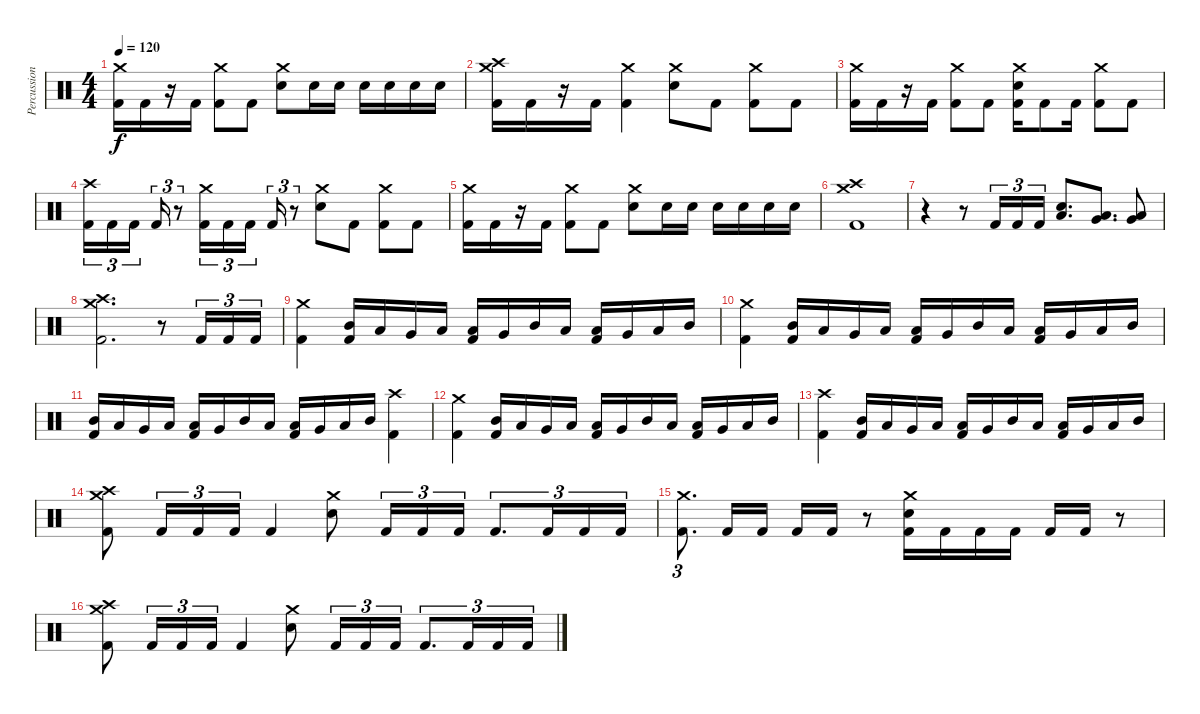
\track ("Percussion" "Percussion") {instrument percussion}
\staff {score}
\articulation defaults
\ts (4 4)
\tempo 120
\clef neutral
\ks c
("Crash medium (hit)" "Kick (hit) 2").16{dy f} "Kick (hit) 2".16 r.16 "Kick (hit) 2".16 ("Crash medium (hit)" "Kick (hit) 2").8 "Kick (hit) 2".8 ("Crash medium (hit)" "Electric Snare (hit)").8 "Electric Snare (hit)".16 "Electric Snare (hit)".16 "Electric Snare (hit)".16 "Electric Snare (hit)".16 "Electric Snare (hit)".16 "Electric Snare (hit)".16 |
("Crash high (hit)" "Crash medium (hit)" "Kick (hit) 2").16 "Kick (hit) 2".16 r.16 "Kick (hit) 2".16 ("Crash medium (hit)" "Kick (hit) 2").4 ("Crash medium (hit)" "Electric Snare (hit)").8 "Kick (hit) 2".8 ("Crash medium (hit)" "Kick (hit) 2").8 "Kick (hit) 2".8 |
("Crash medium (hit)" "Kick (hit) 2").16 "Kick (hit) 2".16 r.16 "Kick (hit) 2".16 ("Crash medium (hit)" "Kick (hit) 2").8 "Kick (hit) 2".8 ("Crash medium (hit)" "Electric Snare (hit)" "Kick (hit) 2").16 "Kick (hit) 2".8 "Kick (hit) 2".16 ("Crash medium (hit)" "Kick (hit) 2").8 "Kick (hit) 2".8 |
("Crash high (hit)" "Kick (hit) 2").16{tu (3 2)} "Kick (hit) 2".16{tu (3 2)} "Kick (hit) 2".16{tu (3 2) beam splitsecondary} "Kick (hit) 2".16{tu (3 2)} r.8{tu (3 2)} ("Crash medium (hit)" "Kick (hit) 2").16{tu (3 2)} "Kick (hit) 2".16{tu (3 2)} "Kick (hit) 2".16{tu (3 2) beam splitsecondary} "Kick (hit) 2".16{tu (3 2)} r.8{tu (3 2)} ("Crash medium (hit)" "Electric Snare (hit)").8 "Kick (hit) 2".8 ("Crash medium (hit)" "Kick (hit) 2").8 "Kick (hit) 2".8 |
("Crash medium (hit)" "Kick (hit) 2").16 "Kick (hit) 2".16 r.16 "Kick (hit) 2".16 ("Crash medium (hit)" "Kick (hit) 2").8 "Kick (hit) 2".8 ("Crash medium (hit)" "Electric Snare (hit)").8 "Electric Snare (hit)".16 "Electric Snare (hit)".16 "Electric Snare (hit)".16 "Electric Snare (hit)".16 "Electric Snare (hit)".16 "Electric Snare (hit)".16 |
("Crash high (hit)" "Crash medium (hit)" "Kick (hit) 2").1 |
r.4 r.8 "Kick (hit) 2".16{tu (3 2)} "Kick (hit) 2".16{tu (3 2)} "Kick (hit) 2".16{tu (3 2)} ("Electric Snare (hit)" "Low Floor Tom (hit)").8{d} ("Very Low Tom (hit)" "Low Tom (hit)").8{d} ("Very Low Tom (hit)" "Low Floor Tom (hit)").8 |
("Crash high (hit)" "Crash medium (hit)" "Kick (hit) 2").2{d} r.8 "Kick (hit) 2".16{tu (3 2)} "Kick (hit) 2".16{tu (3 2)} "Kick (hit) 2".16{tu (3 2)} |
("Crash medium (hit)" "Kick (hit) 2").4 ("Mid Tom (hit)" "Kick (hit) 2").16 "Low Tom (hit)".16 "Very Low Tom (hit)".16 "Low Floor Tom (hit)".16 ("Low Tom (hit)" "Kick (hit) 2").16 "Very Low Tom (hit)".16 "Mid Tom (hit)".16 "Low Floor Tom (hit)".16 ("Low Tom (hit)" "Kick (hit) 2").16 "Very Low Tom (hit)".16 "Low Floor Tom (hit)".16 "Mid Tom (hit)".16 |
("Crash medium (hit)" "Kick (hit) 2").4 ("Mid Tom (hit)" "Kick (hit) 2").16 "Low Tom (hit)".16 "Very Low Tom (hit)".16 "Low Floor Tom (hit)".16 ("Low Tom (hit)" "Kick (hit) 2").16 "Very Low Tom (hit)".16 "Mid Tom (hit)".16 "Low Floor Tom (hit)".16 ("Low Tom (hit)" "Kick (hit) 2").16 "Very Low Tom (hit)".16 "Low Floor Tom (hit)".16 "Mid Tom (hit)".16 |
("Mid Tom (hit)" "Kick (hit) 2").16 "Low Tom (hit)".16 "Very Low Tom (hit)".16 "Low Floor Tom (hit)".16 ("Low Tom (hit)" "Kick (hit) 2").16 "Very Low Tom (hit)".16 "Mid Tom (hit)".16 "Low Floor Tom (hit)".16 ("Low Tom (hit)" "Kick (hit) 2").16 "Very Low Tom (hit)".16 "Low Floor Tom (hit)".16 "Mid Tom (hit)".16 ("Crash high (hit)" "Kick (hit) 2").4 |
("Crash medium (hit)" "Kick (hit) 2").4 ("Mid Tom (hit)" "Kick (hit) 2").16 "Low Tom (hit)".16 "Very Low Tom (hit)".16 "Low Floor Tom (hit)".16 ("Low Tom (hit)" "Kick (hit) 2").16 "Very Low Tom (hit)".16 "Mid Tom (hit)".16 "Low Floor Tom (hit)".16 ("Low Tom (hit)" "Kick (hit) 2").16 "Very Low Tom (hit)".16 "Low Floor Tom (hit)".16 "Mid Tom (hit)".16 |
("Crash high (hit)" "Kick (hit) 2").4 ("Mid Tom (hit)" "Kick (hit) 2").16 "Low Tom (hit)".16 "Very Low Tom (hit)".16 "Low Floor Tom (hit)".16 ("Low Tom (hit)" "Kick (hit) 2").16 "Very Low Tom (hit)".16 "Mid Tom (hit)".16 "Low Floor Tom (hit)".16 ("Low Tom (hit)" "Kick (hit) 2").16 "Very Low Tom (hit)".16 "Low Floor Tom (hit)".16 "Mid Tom (hit)".16 |
("Crash high (hit)" "Crash medium (hit)" "Kick (hit) 2").8 "Kick (hit) 2".16{tu (3 2)} "Kick (hit) 2".16{tu (3 2)} "Kick (hit) 2".16{tu (3 2)} "Kick (hit) 2".4 ("Crash medium (hit)" "Electric Snare (hit)").8 "Kick (hit) 2".16{tu (3 2)} "Kick (hit) 2".16{tu (3 2)} "Kick (hit) 2".16{tu (3 2)} "Kick (hit) 2".8{d tu (3 2)} "Kick (hit) 2".16{tu (3 2)} "Kick (hit) 2".16{tu (3 2)} "Kick (hit) 2".16{tu (3 2)} |
("Crash medium (hit)" "Kick (hit) 2").8{d tu (3 2)} "Kick (hit) 2".16 "Kick (hit) 2".16 "Kick (hit) 2".16 "Kick (hit) 2".16 r.8 ("Crash medium (hit)" "Electric Snare (hit)" "Kick (hit) 2").16 "Kick (hit) 2".16 "Kick (hit) 2".16 "Kick (hit) 2".16 "Kick (hit) 2".16 "Kick (hit) 2".16 r.8 |
("Crash high (hit)" "Crash medium (hit)" "Kick (hit) 2").8 "Kick (hit) 2".16{tu (3 2)} "Kick (hit) 2".16{tu (3 2)} "Kick (hit) 2".16{tu (3 2)} "Kick (hit) 2".4 ("Crash medium (hit)" "Electric Snare (hit)").8 "Kick (hit) 2".16{tu (3 2)} "Kick (hit) 2".16{tu (3 2)} "Kick (hit) 2".16{tu (3 2)} "Kick (hit) 2".8{d tu (3 2)} "Kick (hit) 2".16{tu (3 2)} "Kick (hit) 2".16{tu (3 2)} "Kick (hit) 2".16{tu (3 2)}
